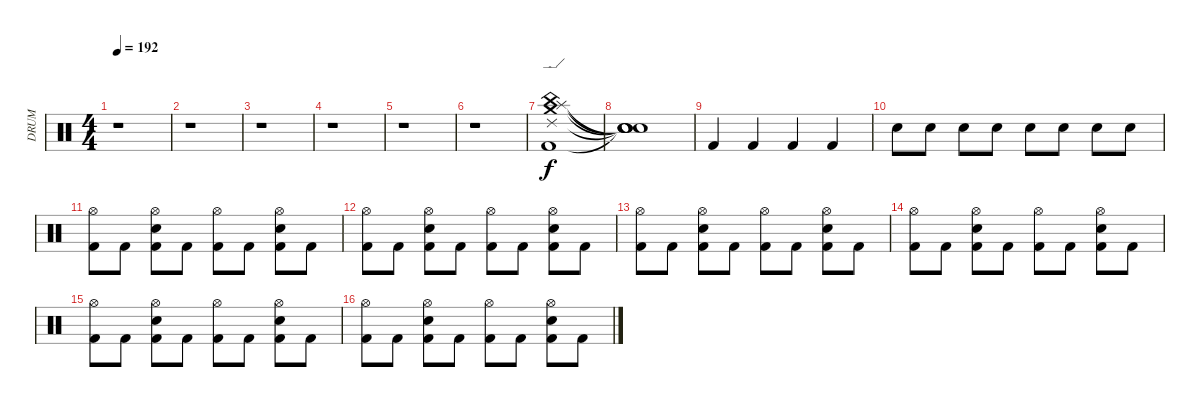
\track ("     DRUM" "     DRUM") {instrument percussion}
\staff {score}
\articulation defaults
\ts (4 4)
\tempo 192
\clef neutral
\ks c
r.1{dy f} |
r.1 |
r.1 |
r.1 |
r.1 |
r.1 |
("Ride (edge) 2" "Crash medium (hit)" "Splash (hit)" "China (hit)" "Kick (hit) 2").1 |
("Snare (hit)"{t} "Snare (hit)"{t} "Snare (hit)"{t} "Snare (hit)"{t} "Snare (hit)"{t}).1 |
"Kick (hit) 2".4{volume 7} "Kick (hit) 2".4{volume 7} "Kick (hit) 2".4{volume 8} "Kick (hit) 2".4{volume 8} |
"Electric Snare (hit)".8{volume 9} "Electric Snare (hit)".8{volume 9} "Electric Snare (hit)".8{volume 9} "Electric Snare (hit)".8{volume 9} "Electric Snare (hit)".8{volume 10} "Electric Snare (hit)".8{volume 10} "Electric Snare (hit)".8{volume 10} "Electric Snare (hit)".8{volume 10} |
("Hi-Hat (open)" "Kick (hit) 2").8{volume 11} "Kick (hit) 2".8 ("Electric Snare (hit)" "Hi-Hat (open)" "Kick (hit) 2").8 "Kick (hit) 2".8 ("Hi-Hat (open)" "Kick (hit) 2").8 "Kick (hit) 2".8 ("Electric Snare (hit)" "Hi-Hat (open)" "Kick (hit) 2").8 "Kick (hit) 2".8 |
("Hi-Hat (open)" "Kick (hit) 2").8 "Kick (hit) 2".8 ("Electric Snare (hit)" "Hi-Hat (open)" "Kick (hit) 2").8 "Kick (hit) 2".8 ("Hi-Hat (open)" "Kick (hit) 2").8 "Kick (hit) 2".8 ("Electric Snare (hit)" "Hi-Hat (open)" "Kick (hit) 2").8 "Kick (hit) 2".8 |
("Hi-Hat (open)" "Kick (hit) 2").8 "Kick (hit) 2".8 ("Electric Snare (hit)" "Hi-Hat (open)" "Kick (hit) 2").8 "Kick (hit) 2".8 ("Hi-Hat (open)" "Kick (hit) 2").8 "Kick (hit) 2".8 ("Electric Snare (hit)" "Hi-Hat (open)" "Kick (hit) 2").8 "Kick (hit) 2".8 |
("Hi-Hat (open)" "Kick (hit) 2").8 "Kick (hit) 2".8 ("Electric Snare (hit)" "Hi-Hat (open)" "Kick (hit) 2").8 "Kick (hit) 2".8 ("Hi-Hat (open)" "Kick (hit) 2").8 "Kick (hit) 2".8 ("Electric Snare (hit)" "Hi-Hat (open)" "Kick (hit) 2").8 "Kick (hit) 2".8 |
("Hi-Hat (open)" "Kick (hit) 2").8 "Kick (hit) 2".8 ("Electric Snare (hit)" "Hi-Hat (open)" "Kick (hit) 2").8 "Kick (hit) 2".8 ("Hi-Hat (open)" "Kick (hit) 2").8 "Kick (hit) 2".8 ("Electric Snare (hit)" "Hi-Hat (open)" "Kick (hit) 2").8 "Kick (hit) 2".8 |
("Hi-Hat (open)" "Kick (hit) 2").8 "Kick (hit) 2".8 ("Electric Snare (hit)" "Hi-Hat (open)" "Kick (hit) 2").8 "Kick (hit) 2".8 ("Hi-Hat (open)" "Kick (hit) 2").8 "Kick (hit) 2".8 ("Electric Snare (hit)" "Hi-Hat (open)" "Kick (hit) 2").8 "Kick (hit) 2".8
